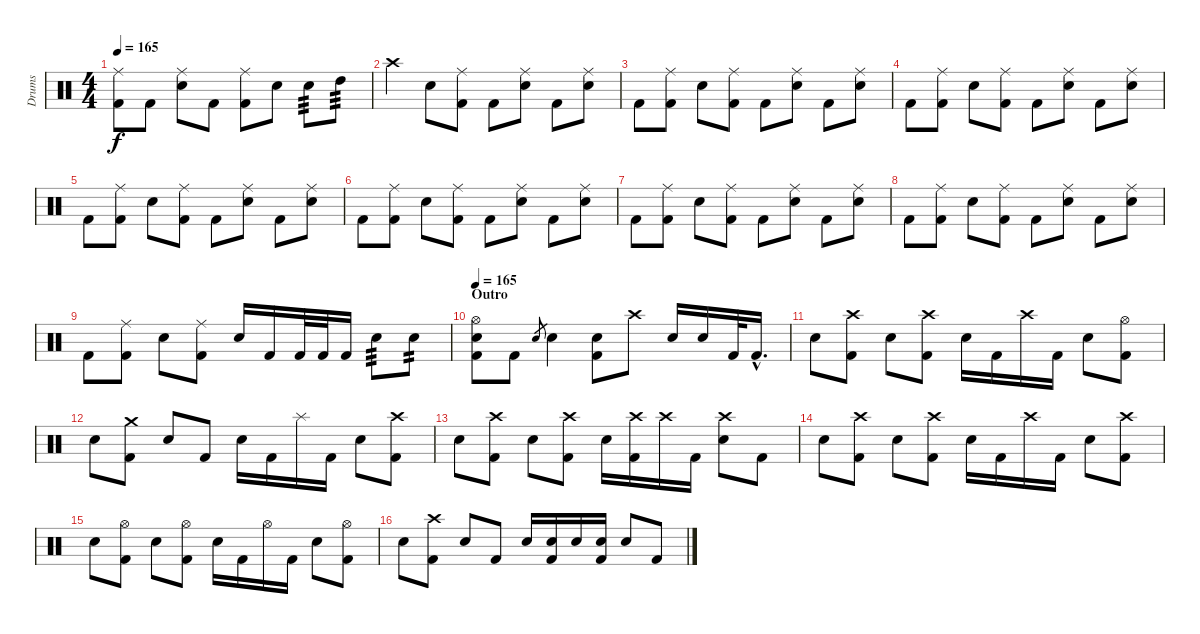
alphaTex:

\track ("Drums" "Drums") {instrument percussion}
\staff {score}
\articulation defaults
\ts (4 4)
\tempo 165
\clef neutral
\ks c
("Ride (middle)" "Kick (hit) 2").8{dy f} "Kick (hit) 2".8 ("Ride (middle)" "Electric Snare (hit)").8 "Kick (hit) 2".8 ("Ride (middle)" "Kick (hit) 2").8 "Electric Snare (hit)".8 "Electric Snare (hit)".8{tp 3} "High Tom (hit)".8{tp 3} |
"Crash high (hit)".4 "Electric Snare (hit)".8 ("Ride (middle)" "Kick (hit) 2").8 "Kick (hit) 2".8 ("Ride (middle)" "Electric Snare (hit)").8 "Kick (hit) 2".8 ("Ride (middle)" "Electric Snare (hit)").8 |
"Kick (hit) 2".8 ("Ride (middle)" "Kick (hit) 2").8 "Electric Snare (hit)".8 ("Ride (middle)" "Kick (hit) 2").8 "Kick (hit) 2".8 ("Ride (middle)" "Electric Snare (hit)").8 "Kick (hit) 2".8 ("Ride (middle)" "Electric Snare (hit)").8 |
"Kick (hit) 2".8 ("Ride (middle)" "Kick (hit) 2").8 "Electric Snare (hit)".8 ("Ride (middle)" "Kick (hit) 2").8 "Kick (hit) 2".8 ("Ride (middle)" "Electric Snare (hit)").8 "Kick (hit) 2".8 ("Ride (middle)" "Electric Snare (hit)").8 |
"Kick (hit) 2".8 ("Ride (middle)" "Kick (hit) 2").8 "Electric Snare (hit)".8 ("Ride (middle)" "Kick (hit) 2").8 "Kick (hit) 2".8 ("Ride (middle)" "Electric Snare (hit)").8 "Kick (hit) 2".8 ("Ride (middle)" "Electric Snare (hit)").8 |
"Kick (hit) 2".8 ("Ride (middle)" "Kick (hit) 2").8 "Electric Snare (hit)".8 ("Ride (middle)" "Kick (hit) 2").8 "Kick (hit) 2".8 ("Ride (middle)" "Electric Snare (hit)").8 "Kick (hit) 2".8 ("Ride (middle)" "Electric Snare (hit)").8 |
"Kick (hit) 2".8 ("Ride (middle)" "Kick (hit) 2").8 "Electric Snare (hit)".8 ("Ride (middle)" "Kick (hit) 2").8 "Kick (hit) 2".8 ("Ride (middle)" "Electric Snare (hit)").8 "Kick (hit) 2".8 ("Ride (middle)" "Electric Snare (hit)").8 |
"Kick (hit) 2".8 ("Ride (middle)" "Kick (hit) 2").8 "Electric Snare (hit)".8 ("Ride (middle)" "Kick (hit) 2").8 "Kick (hit) 2".8 ("Ride (middle)" "Electric Snare (hit)").8 "Kick (hit) 2".8 ("Ride (middle)" "Electric Snare (hit)").8 |
"Kick (hit) 2".8 ("Ride (middle)" "Kick (hit) 2").8 "Electric Snare (hit)".8 ("Ride (middle)" "Kick (hit) 2").8 "Electric Snare (hit)".16 "Kick (hit) 2".16 "Kick (hit) 2".32 "Kick (hit) 2".32 "Kick (hit) 2".16 "Electric Snare (hit)".8{tp 3} "Electric Snare (hit)".8{tp 2} |
\section ("" "Outro")
\tempo 165
("Hi-Hat (open)" "Electric Snare (hit)" "Kick (hit) 2").8 "Kick (hit) 2".8 "Electric Snare (hit)".8{gr} "Electric Snare (hit)".4 ("Electric Snare (hit)" "Kick (hit) 2").8 "Crash high (hit)".8 "Electric Snare (hit)".16 "Electric Snare (hit)".16 "Kick (hit) 2".32 "Kick (hit) 2"{hac}.16{d} |
"Electric Snare (hit)".8 ("Crash high (hit)" "Kick (hit) 2").8 "Electric Snare (hit)".8 ("Crash high (hit)" "Kick (hit) 2").8 "Electric Snare (hit)".16 "Kick (hit) 2".16 "Crash high (hit)".16 "Kick (hit) 2".16 "Electric Snare (hit)".8 ("Hi-Hat (open)" "Kick (hit) 2").8 |
"Electric Snare (hit)".8 ("Crash medium (hit)" "Kick (hit) 2").8 "Electric Snare (hit)".8 "Kick (hit) 2".8 "Electric Snare (hit)".16 "Kick (hit) 2".16 "Splash (hit)".16 "Kick (hit) 2".16 "Electric Snare (hit)".8 ("Crash high (hit)" "Kick (hit) 2").8 |
"Electric Snare (hit)".8 ("Crash high (hit)" "Kick (hit) 2").8 "Electric Snare (hit)".8 ("Crash high (hit)" "Kick (hit) 2").8 "Electric Snare (hit)".16 ("Crash high (hit)" "Kick (hit) 2").16 "Crash high (hit)".16 "Kick (hit) 2".16 ("Crash high (hit)" "Electric Snare (hit)").8 "Kick (hit) 2".8 |
"Electric Snare (hit)".8 ("Crash high (hit)" "Kick (hit) 2").8 "Electric Snare (hit)".8 ("Crash high (hit)" "Kick (hit) 2").8 "Electric Snare (hit)".16 "Kick (hit) 2".16 "Crash high (hit)".16 "Kick (hit) 2".16 "Electric Snare (hit)".8 ("Crash high (hit)" "Kick (hit) 2").8 |
"Electric Snare (hit)".8 ("Hi-Hat (open)" "Kick (hit) 2").8 "Electric Snare (hit)".8 ("Hi-Hat (open)" "Kick (hit) 2").8 "Electric Snare (hit)".16 "Kick (hit) 2".16 "Hi-Hat (open)".16 "Kick (hit) 2".16 "Electric Snare (hit)".8 ("Hi-Hat (open)" "Kick (hit) 2").8 |
"Electric Snare (hit)".8 ("Crash high (hit)" "Kick (hit) 2").8 "Electric Snare (hit)".8 "Kick (hit) 2".8 "Electric Snare (hit)".16 ("Electric Snare (hit)" "Kick (hit) 2").16 "Electric Snare (hit)".16 ("Electric Snare (hit)" "Kick (hit) 2").16 "Electric Snare (hit)".8 "Kick (hit) 2".8
